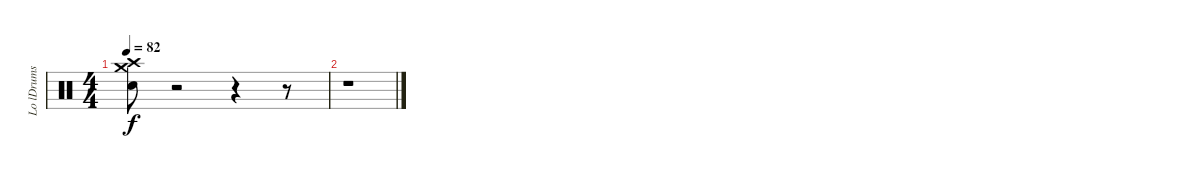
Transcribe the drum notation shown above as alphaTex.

\track ("Lo lDrums" "Lo lDrums") {instrument percussion}
\staff {score}
\articulation defaults
\ts (4 4)
\tempo 82
\clef neutral
\ks c
("Crash medium (hit)" "Crash high (hit)" "Snare (hit) 2").8{dy f} r.2 r.4 r.8 |
r.1
